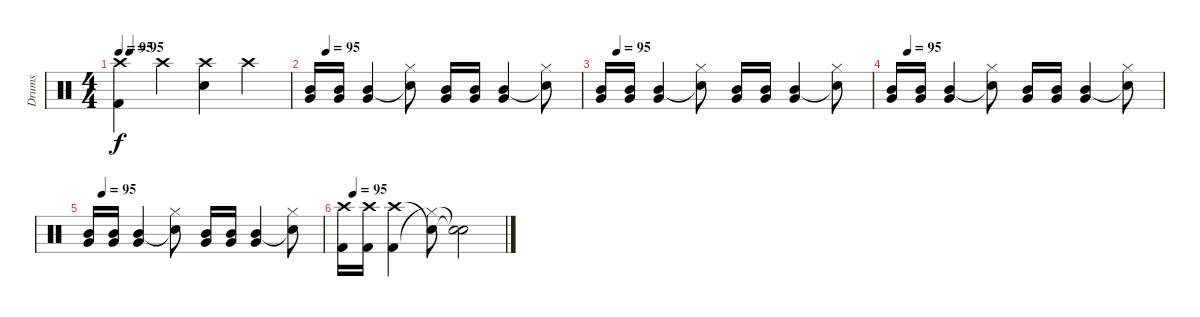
\track ("Drums" "Drums") {instrument percussion}
\staff {score}
\articulation defaults
\ts (4 4)
\tempo 95
\tempo (95 0.0625)
\clef neutral
\ks c
("Kick (hit) 2" "Crash high (hit)").4{dy f} "Crash high (hit)".4 ("Snare (hit) 2" "Crash high (hit)").4 "Crash high (hit)".4 |
\tempo (95 0.0625)
("Mid Tom (hit)" "Very Low Tom (hit)").16 ("Mid Tom (hit)" "Very Low Tom (hit)").16 ("Mid Tom (hit)" "Very Low Tom (hit)").4 ("Snare (hit)"{t} "Hi-Hat (closed)").8 ("Mid Tom (hit)" "Very Low Tom (hit)").16 ("Mid Tom (hit)" "Very Low Tom (hit)").16 ("Mid Tom (hit)" "Very Low Tom (hit)").4 ("Snare (hit)"{t} "Hi-Hat (closed)").8 |
\tempo (95 0.0625)
("Mid Tom (hit)" "Very Low Tom (hit)").16 ("Mid Tom (hit)" "Very Low Tom (hit)").16 ("Mid Tom (hit)" "Very Low Tom (hit)").4 ("Snare (hit)"{t} "Hi-Hat (closed)").8 ("Mid Tom (hit)" "Very Low Tom (hit)").16 ("Mid Tom (hit)" "Very Low Tom (hit)").16 ("Mid Tom (hit)" "Very Low Tom (hit)").4 ("Snare (hit)"{t} "Hi-Hat (closed)").8 |
\tempo (95 0.0625)
("Mid Tom (hit)" "Very Low Tom (hit)").16 ("Mid Tom (hit)" "Very Low Tom (hit)").16 ("Mid Tom (hit)" "Very Low Tom (hit)").4 ("Snare (hit)"{t} "Hi-Hat (closed)").8 ("Mid Tom (hit)" "Very Low Tom (hit)").16 ("Mid Tom (hit)" "Very Low Tom (hit)").16 ("Mid Tom (hit)" "Very Low Tom (hit)").4 ("Snare (hit)"{t} "Hi-Hat (closed)").8 |
\tempo (95 0.0625)
("Mid Tom (hit)" "Very Low Tom (hit)").16 ("Mid Tom (hit)" "Very Low Tom (hit)").16 ("Mid Tom (hit)" "Very Low Tom (hit)").4 ("Snare (hit)"{t} "Hi-Hat (closed)").8 ("Mid Tom (hit)" "Very Low Tom (hit)").16 ("Mid Tom (hit)" "Very Low Tom (hit)").16 ("Mid Tom (hit)" "Very Low Tom (hit)").4 ("Snare (hit)"{t} "Hi-Hat (closed)").8 |
\tempo (95 0.0625)
("Crash high (hit)" "Kick (hit) 2").16 ("Crash high (hit)" "Kick (hit) 2").16 ("Crash high (hit)" "Kick (hit) 2").4 ("Snare (hit)"{t} "Hi-Hat (closed)"{t}).8 ("Snare (hit)"{t} "Snare (hit)"{t}).2
